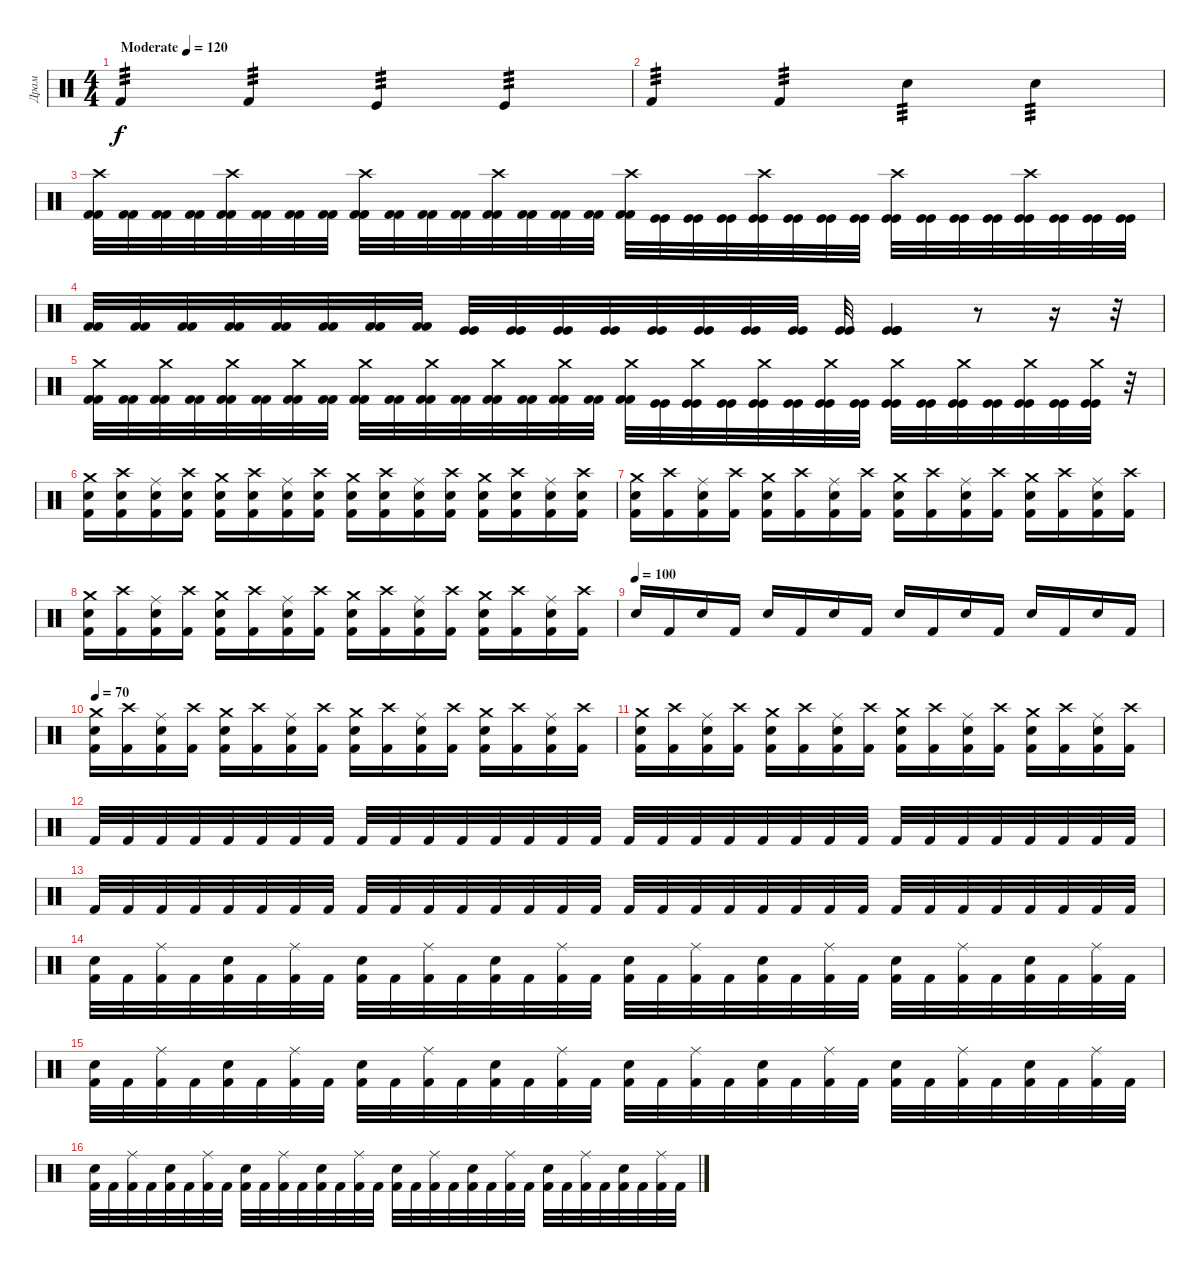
\track ("Драм" "Драм") {instrument percussion}
\staff {score}
\articulation defaults
\ts (4 4)
\tempo (120 "Moderate")
\tempo 70
\tempo (120 "Moderate")
\clef neutral
\ks c "Kick (hit) 2".4{tp 3 dy f} "Kick (hit) 2".4{tp 3} "Kick (hit)".4{tp 3} "Kick (hit)".4{tp 3}
|
"Kick (hit) 2".4{tp 3} "Kick (hit) 2".4{tp 3} "Snare (hit) 2".4{tp 3} "Snare (hit) 2".4{tp 3} |
("Crash high (hit)" "Kick (hit) 2" "Kick (hit) 2").32 ("Kick (hit) 2" "Kick (hit) 2").32 ("Kick (hit) 2" "Kick (hit) 2").32 ("Kick (hit) 2" "Kick (hit) 2").32 ("Crash high (hit)" "Kick (hit) 2" "Kick (hit) 2").32 ("Kick (hit) 2" "Kick (hit) 2").32 ("Kick (hit) 2" "Kick (hit) 2").32 ("Kick (hit) 2" "Kick (hit) 2").32 ("Crash high (hit)" "Kick (hit) 2" "Kick (hit) 2").32 ("Kick (hit) 2" "Kick (hit) 2").32 ("Kick (hit) 2" "Kick (hit) 2").32 ("Kick (hit) 2" "Kick (hit) 2").32 ("Crash high (hit)" "Kick (hit) 2" "Kick (hit) 2").32 ("Kick (hit) 2" "Kick (hit) 2").32 ("Kick (hit) 2" "Kick (hit) 2").32 ("Kick (hit) 2" "Kick (hit) 2").32 ("Crash high (hit)" "Kick (hit) 2" "Kick (hit) 2").32 ("Kick (hit)" "Kick (hit)").32 ("Kick (hit)" "Kick (hit)").32 ("Kick (hit)" "Kick (hit)").32 ("Crash high (hit)" "Kick (hit)" "Kick (hit)").32 ("Kick (hit)" "Kick (hit)").32 ("Kick (hit)" "Kick (hit)").32 ("Kick (hit)" "Kick (hit)").32 ("Crash high (hit)" "Kick (hit)" "Kick (hit)").32 ("Kick (hit)" "Kick (hit)").32 ("Kick (hit)" "Kick (hit)").32 ("Kick (hit)" "Kick (hit)").32 ("Crash high (hit)" "Kick (hit)" "Kick (hit)").32 ("Kick (hit)" "Kick (hit)").32 ("Kick (hit)" "Kick (hit)").32 ("Kick (hit)" "Kick (hit)").32 |
("Kick (hit) 2" "Kick (hit) 2").32 ("Kick (hit) 2" "Kick (hit) 2").32 ("Kick (hit) 2" "Kick (hit) 2").32 ("Kick (hit) 2" "Kick (hit) 2").32 ("Kick (hit) 2" "Kick (hit) 2").32 ("Kick (hit) 2" "Kick (hit) 2").32 ("Kick (hit) 2" "Kick (hit) 2").32 ("Kick (hit) 2" "Kick (hit) 2").32 ("Kick (hit)" "Kick (hit)").32 ("Kick (hit)" "Kick (hit)").32 ("Kick (hit)" "Kick (hit)").32 ("Kick (hit)" "Kick (hit)").32 ("Kick (hit)" "Kick (hit)").32 ("Kick (hit)" "Kick (hit)").32 ("Kick (hit)" "Kick (hit)").32 ("Kick (hit)" "Kick (hit)").32 ("Kick (hit)" "Kick (hit)").32 ("Kick (hit)" "Kick (hit)" "Kick (hit)" "Kick (hit)").4 r.8 r.16 r.32 |
("Crash medium (hit)" "Kick (hit) 2" "Kick (hit) 2").32 ("Kick (hit) 2" "Kick (hit) 2").32 ("Crash medium (hit)" "Kick (hit) 2" "Kick (hit) 2").32 ("Kick (hit) 2" "Kick (hit) 2").32 ("Crash medium (hit)" "Kick (hit) 2" "Kick (hit) 2").32 ("Kick (hit) 2" "Kick (hit) 2").32 ("Crash medium (hit)" "Kick (hit) 2" "Kick (hit) 2").32 ("Kick (hit) 2" "Kick (hit) 2").32 ("Crash medium (hit)" "Kick (hit) 2" "Kick (hit) 2").32 ("Kick (hit) 2" "Kick (hit) 2").32 ("Crash medium (hit)" "Kick (hit) 2" "Kick (hit) 2").32 ("Kick (hit) 2" "Kick (hit) 2").32 ("Crash medium (hit)" "Kick (hit) 2" "Kick (hit) 2").32 ("Kick (hit) 2" "Kick (hit) 2").32 ("Crash medium (hit)" "Kick (hit) 2" "Kick (hit) 2").32 ("Kick (hit) 2" "Kick (hit) 2").32 ("Crash medium (hit)" "Kick (hit) 2" "Kick (hit) 2").32 ("Kick (hit)" "Kick (hit)").32 ("Crash medium (hit)" "Kick (hit)" "Kick (hit)").32 ("Kick (hit)" "Kick (hit)").32 ("Crash medium (hit)" "Kick (hit)" "Kick (hit)").32 ("Kick (hit)" "Kick (hit)").32 ("Crash medium (hit)" "Kick (hit)" "Kick (hit)").32 ("Kick (hit)" "Kick (hit)").32 ("Crash medium (hit)" "Kick (hit)" "Kick (hit)").32 ("Kick (hit)" "Kick (hit)").32 ("Crash medium (hit)" "Kick (hit)" "Kick (hit)").32 ("Kick (hit)" "Kick (hit)").32 ("Crash medium (hit)" "Kick (hit)" "Kick (hit)").32 ("Kick (hit)" "Kick (hit)").32 ("Crash medium (hit)" "Kick (hit)" "Kick (hit)").32 r.32 |
("Crash medium (hit)" "Electric Snare (hit)" "Kick (hit) 2").16 ("Crash high (hit)" "Electric Snare (hit)" "Kick (hit) 2").16 ("Ride (middle)" "Electric Snare (hit)" "Kick (hit) 2").16 ("Crash high (hit)" "Electric Snare (hit)" "Kick (hit) 2").16 ("Crash medium (hit)" "Electric Snare (hit)" "Kick (hit) 2").16 ("Crash high (hit)" "Electric Snare (hit)" "Kick (hit) 2").16 ("Ride (middle)" "Electric Snare (hit)" "Kick (hit) 2").16 ("Crash high (hit)" "Electric Snare (hit)" "Kick (hit) 2").16 ("Crash medium (hit)" "Electric Snare (hit)" "Kick (hit) 2").16 ("Crash high (hit)" "Electric Snare (hit)" "Kick (hit) 2").16 ("Ride (middle)" "Electric Snare (hit)" "Kick (hit) 2").16 ("Crash high (hit)" "Electric Snare (hit)" "Kick (hit) 2").16 ("Crash medium (hit)" "Electric Snare (hit)" "Kick (hit) 2").16 ("Crash high (hit)" "Electric Snare (hit)" "Kick (hit) 2").16 ("Ride (middle)" "Electric Snare (hit)" "Kick (hit) 2").16 ("Crash high (hit)" "Electric Snare (hit)" "Kick (hit) 2").16 |
("Crash medium (hit)" "Electric Snare (hit)" "Kick (hit) 2").16 ("Crash high (hit)" "Kick (hit) 2").16 ("Ride (middle)" "Electric Snare (hit)" "Kick (hit) 2").16 ("Crash high (hit)" "Kick (hit) 2").16 ("Crash medium (hit)" "Electric Snare (hit)" "Kick (hit) 2").16 ("Crash high (hit)" "Kick (hit) 2").16 ("Ride (middle)" "Electric Snare (hit)" "Kick (hit) 2").16 ("Crash high (hit)" "Kick (hit) 2").16 ("Crash medium (hit)" "Electric Snare (hit)" "Kick (hit) 2").16 ("Crash high (hit)" "Kick (hit) 2").16 ("Ride (middle)" "Electric Snare (hit)" "Kick (hit) 2").16 ("Crash high (hit)" "Kick (hit) 2").16 ("Crash medium (hit)" "Electric Snare (hit)" "Kick (hit) 2").16 ("Crash high (hit)" "Kick (hit) 2").16 ("Ride (middle)" "Electric Snare (hit)" "Kick (hit) 2").16 ("Crash high (hit)" "Kick (hit) 2").16 |
("Crash medium (hit)" "Electric Snare (hit)" "Kick (hit) 2").16 ("Crash high (hit)" "Kick (hit) 2").16 ("Ride (middle)" "Electric Snare (hit)" "Kick (hit) 2").16 ("Crash high (hit)" "Kick (hit) 2").16 ("Crash medium (hit)" "Electric Snare (hit)" "Kick (hit) 2").16 ("Crash high (hit)" "Kick (hit) 2").16 ("Ride (middle)" "Electric Snare (hit)" "Kick (hit) 2").16 ("Crash high (hit)" "Kick (hit) 2").16 ("Crash medium (hit)" "Electric Snare (hit)" "Kick (hit) 2").16 ("Crash high (hit)" "Kick (hit) 2").16 ("Ride (middle)" "Electric Snare (hit)" "Kick (hit) 2").16 ("Crash high (hit)" "Kick (hit) 2").16 ("Crash medium (hit)" "Electric Snare (hit)" "Kick (hit) 2").16 ("Crash high (hit)" "Kick (hit) 2").16 ("Ride (middle)" "Electric Snare (hit)" "Kick (hit) 2").16 ("Crash high (hit)" "Kick (hit) 2").16 |
\tempo (100)
"Snare (hit) 2".16 "Kick (hit) 2".16 "Snare (hit) 2".16 "Kick (hit) 2".16 "Snare (hit) 2".16 "Kick (hit) 2".16 "Snare (hit) 2".16 "Kick (hit) 2".16 "Snare (hit) 2".16 "Kick (hit) 2".16 "Snare (hit) 2".16 "Kick (hit) 2".16 "Snare (hit) 2".16 "Kick (hit) 2".16 "Snare (hit) 2".16 "Kick (hit) 2".16 |
\tempo 70
("Crash medium (hit)" "Electric Snare (hit)" "Kick (hit) 2").16 ("Crash high (hit)" "Kick (hit) 2").16 ("Ride (middle)" "Electric Snare (hit)" "Kick (hit) 2").16 ("Crash high (hit)" "Kick (hit) 2").16 ("Crash medium (hit)" "Electric Snare (hit)" "Kick (hit) 2").16 ("Crash high (hit)" "Kick (hit) 2").16 ("Ride (middle)" "Electric Snare (hit)" "Kick (hit) 2").16 ("Crash high (hit)" "Kick (hit) 2").16 ("Crash medium (hit)" "Electric Snare (hit)" "Kick (hit) 2").16 ("Crash high (hit)" "Kick (hit) 2").16 ("Ride (middle)" "Electric Snare (hit)" "Kick (hit) 2").16 ("Crash high (hit)" "Kick (hit) 2").16 ("Crash medium (hit)" "Electric Snare (hit)" "Kick (hit) 2").16 ("Crash high (hit)" "Kick (hit) 2").16 ("Ride (middle)" "Electric Snare (hit)" "Kick (hit) 2").16 ("Crash high (hit)" "Kick (hit) 2").16 |
("Crash medium (hit)" "Electric Snare (hit)" "Kick (hit) 2").16 ("Crash high (hit)" "Kick (hit) 2").16 ("Ride (middle)" "Electric Snare (hit)" "Kick (hit) 2").16 ("Crash high (hit)" "Kick (hit) 2").16 ("Crash medium (hit)" "Electric Snare (hit)" "Kick (hit) 2").16 ("Crash high (hit)" "Kick (hit) 2").16 ("Ride (middle)" "Electric Snare (hit)" "Kick (hit) 2").16 ("Crash high (hit)" "Kick (hit) 2").16 ("Crash medium (hit)" "Electric Snare (hit)" "Kick (hit) 2").16 ("Crash high (hit)" "Kick (hit) 2").16 ("Ride (middle)" "Electric Snare (hit)" "Kick (hit) 2").16 ("Crash high (hit)" "Kick (hit) 2").16 ("Crash medium (hit)" "Electric Snare (hit)" "Kick (hit) 2").16 ("Crash high (hit)" "Kick (hit) 2").16 ("Ride (middle)" "Electric Snare (hit)" "Kick (hit) 2").16 ("Crash high (hit)" "Kick (hit) 2").16 |
"Kick (hit) 2".32 "Kick (hit) 2".32 "Kick (hit) 2".32 "Kick (hit) 2".32 "Kick (hit) 2".32 "Kick (hit) 2".32 "Kick (hit) 2".32 "Kick (hit) 2".32 "Kick (hit) 2".32 "Kick (hit) 2".32 "Kick (hit) 2".32 "Kick (hit) 2".32 "Kick (hit) 2".32 "Kick (hit) 2".32 "Kick (hit) 2".32 "Kick (hit) 2".32 "Kick (hit) 2".32 "Kick (hit) 2".32 "Kick (hit) 2".32 "Kick (hit) 2".32 "Kick (hit) 2".32 "Kick (hit) 2".32 "Kick (hit) 2".32 "Kick (hit) 2".32 "Kick (hit) 2".32 "Kick (hit) 2".32 "Kick (hit) 2".32 "Kick (hit) 2".32 "Kick (hit) 2".32 "Kick (hit) 2".32 "Kick (hit) 2".32 "Kick (hit) 2".32 |
"Kick (hit) 2".32 "Kick (hit) 2".32 "Kick (hit) 2".32 "Kick (hit) 2".32 "Kick (hit) 2".32 "Kick (hit) 2".32 "Kick (hit) 2".32 "Kick (hit) 2".32 "Kick (hit) 2".32 "Kick (hit) 2".32 "Kick (hit) 2".32 "Kick (hit) 2".32 "Kick (hit) 2".32 "Kick (hit) 2".32 "Kick (hit) 2".32 "Kick (hit) 2".32 "Kick (hit) 2".32 "Kick (hit) 2".32 "Kick (hit) 2".32 "Kick (hit) 2".32 "Kick (hit) 2".32 "Kick (hit) 2".32 "Kick (hit) 2".32 "Kick (hit) 2".32 "Kick (hit) 2".32 "Kick (hit) 2".32 "Kick (hit) 2".32 "Kick (hit) 2".32 "Kick (hit) 2".32 "Kick (hit) 2".32 "Kick (hit) 2".32 "Kick (hit) 2".32 |
("Electric Snare (hit)" "Kick (hit) 2").32 "Kick (hit) 2".32 ("Ride (middle)" "Kick (hit) 2").32 "Kick (hit) 2".32 ("Electric Snare (hit)" "Kick (hit) 2").32 "Kick (hit) 2".32 ("Ride (middle)" "Kick (hit) 2").32 "Kick (hit) 2".32 ("Electric Snare (hit)" "Kick (hit) 2").32 "Kick (hit) 2".32 ("Ride (middle)" "Kick (hit) 2").32 "Kick (hit) 2".32 ("Electric Snare (hit)" "Kick (hit) 2").32 "Kick (hit) 2".32 ("Ride (middle)" "Kick (hit) 2").32 "Kick (hit) 2".32 ("Electric Snare (hit)" "Kick (hit) 2").32 "Kick (hit) 2".32 ("Ride (middle)" "Kick (hit) 2").32 "Kick (hit) 2".32 ("Electric Snare (hit)" "Kick (hit) 2").32 "Kick (hit) 2".32 ("Ride (middle)" "Kick (hit) 2").32 "Kick (hit) 2".32 ("Electric Snare (hit)" "Kick (hit) 2").32 "Kick (hit) 2".32 ("Ride (middle)" "Kick (hit) 2").32 "Kick (hit) 2".32 ("Electric Snare (hit)" "Kick (hit) 2").32 "Kick (hit) 2".32 ("Ride (middle)" "Kick (hit) 2").32 "Kick (hit) 2".32 |
("Electric Snare (hit)" "Kick (hit) 2").32 "Kick (hit) 2".32 ("Ride (middle)" "Kick (hit) 2").32 "Kick (hit) 2".32 ("Electric Snare (hit)" "Kick (hit) 2").32 "Kick (hit) 2".32 ("Ride (middle)" "Kick (hit) 2").32 "Kick (hit) 2".32 ("Electric Snare (hit)" "Kick (hit) 2").32 "Kick (hit) 2".32 ("Ride (middle)" "Kick (hit) 2").32 "Kick (hit) 2".32 ("Electric Snare (hit)" "Kick (hit) 2").32 "Kick (hit) 2".32 ("Ride (middle)" "Kick (hit) 2").32 "Kick (hit) 2".32 ("Electric Snare (hit)" "Kick (hit) 2").32 "Kick (hit) 2".32 ("Ride (middle)" "Kick (hit) 2").32 "Kick (hit) 2".32 ("Electric Snare (hit)" "Kick (hit) 2").32 "Kick (hit) 2".32 ("Ride (middle)" "Kick (hit) 2").32 "Kick (hit) 2".32 ("Electric Snare (hit)" "Kick (hit) 2").32 "Kick (hit) 2".32 ("Ride (middle)" "Kick (hit) 2").32 "Kick (hit) 2".32 ("Electric Snare (hit)" "Kick (hit) 2").32 "Kick (hit) 2".32 ("Ride (middle)" "Kick (hit) 2").32 "Kick (hit) 2".32 |
("Electric Snare (hit)" "Kick (hit) 2").32 "Kick (hit) 2".32 ("Ride (middle)" "Kick (hit) 2").32 "Kick (hit) 2".32 ("Electric Snare (hit)" "Kick (hit) 2").32 "Kick (hit) 2".32 ("Ride (middle)" "Kick (hit) 2").32 "Kick (hit) 2".32 ("Electric Snare (hit)" "Kick (hit) 2").32 "Kick (hit) 2".32 ("Ride (middle)" "Kick (hit) 2").32 "Kick (hit) 2".32 ("Electric Snare (hit)" "Kick (hit) 2").32 "Kick (hit) 2".32 ("Ride (middle)" "Kick (hit) 2").32 "Kick (hit) 2".32 ("Electric Snare (hit)" "Kick (hit) 2").32 "Kick (hit) 2".32 ("Ride (middle)" "Kick (hit) 2").32 "Kick (hit) 2".32 ("Electric Snare (hit)" "Kick (hit) 2").32 "Kick (hit) 2".32 ("Ride (middle)" "Kick (hit) 2").32 "Kick (hit) 2".32 ("Electric Snare (hit)" "Kick (hit) 2").32 "Kick (hit) 2".32 ("Ride (middle)" "Kick (hit) 2").32 "Kick (hit) 2".32 ("Electric Snare (hit)" "Kick (hit) 2").32 "Kick (hit) 2".32 ("Ride (middle)" "Kick (hit) 2").32 "Kick (hit) 2".32
